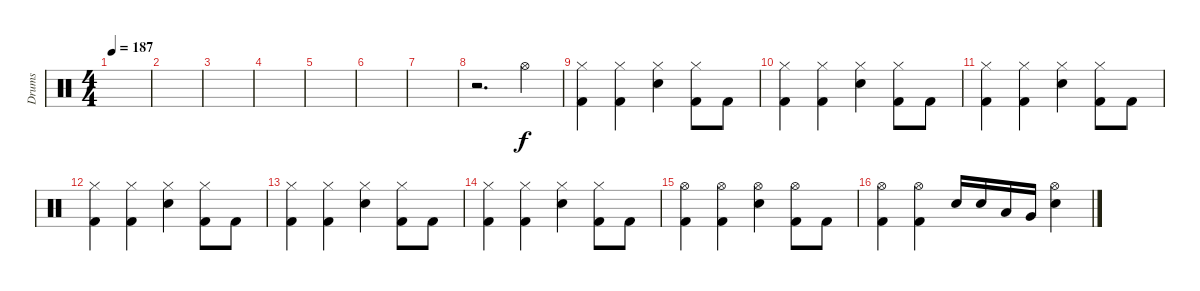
\track ("Drums" "Drums") {instrument percussion}
\staff {score}
\articulation defaults
\ts (4 4)
\tempo 187
\clef neutral
\ks c
|
|
|
|
|
|
|
r.2{d} "Hi-Hat (open)".4 |
("Hi-Hat (closed)" "Kick (hit) 2").4 ("Hi-Hat (closed)" "Kick (hit) 2").4 ("Hi-Hat (closed)" "Electric Snare (hit)").4 ("Hi-Hat (closed)" "Kick (hit) 2").8 "Kick (hit) 2".8 |
("Hi-Hat (closed)" "Kick (hit) 2").4 ("Hi-Hat (closed)" "Kick (hit) 2").4 ("Hi-Hat (closed)" "Electric Snare (hit)").4 ("Hi-Hat (closed)" "Kick (hit) 2").8 "Kick (hit) 2".8 |
("Hi-Hat (closed)" "Kick (hit) 2").4 ("Hi-Hat (closed)" "Kick (hit) 2").4 ("Hi-Hat (closed)" "Electric Snare (hit)").4 ("Hi-Hat (closed)" "Kick (hit) 2").8 "Kick (hit) 2".8 |
("Hi-Hat (closed)" "Kick (hit) 2").4 ("Hi-Hat (closed)" "Kick (hit) 2").4 ("Hi-Hat (closed)" "Electric Snare (hit)").4 ("Hi-Hat (closed)" "Kick (hit) 2").8 "Kick (hit) 2".8 |
("Hi-Hat (closed)" "Kick (hit) 2").4 ("Hi-Hat (closed)" "Kick (hit) 2").4 ("Hi-Hat (closed)" "Electric Snare (hit)").4 ("Hi-Hat (closed)" "Kick (hit) 2").8 "Kick (hit) 2".8 |
("Hi-Hat (closed)" "Kick (hit) 2").4 ("Hi-Hat (closed)" "Kick (hit) 2").4 ("Hi-Hat (closed)" "Electric Snare (hit)").4 ("Hi-Hat (closed)" "Kick (hit) 2").8 "Kick (hit) 2".8 |
("Hi-Hat (open)" "Kick (hit) 2").4 ("Hi-Hat (open)" "Kick (hit) 2").4 ("Hi-Hat (open)" "Electric Snare (hit)").4 ("Hi-Hat (open)" "Kick (hit) 2").8 "Kick (hit) 2".8 |
("Hi-Hat (open)" "Kick (hit) 2").4 ("Hi-Hat (open)" "Kick (hit) 2").4 "Electric Snare (hit)".16 "Electric Snare (hit)".16 "Low Tom (hit)".16 "Very Low Tom (hit)".16 ("Hi-Hat (open)" "Electric Snare (hit)").4
